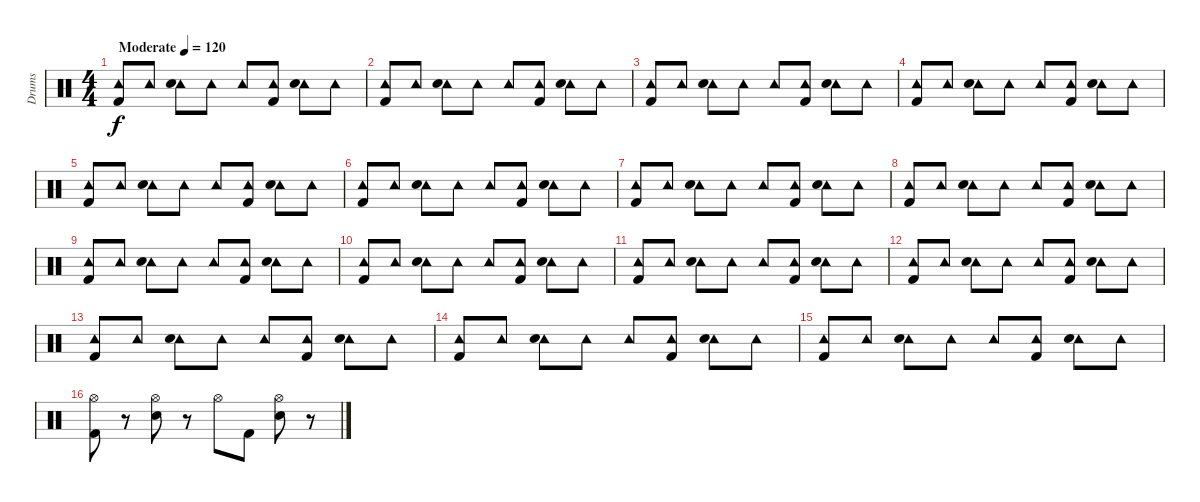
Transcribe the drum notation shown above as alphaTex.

\track ("Drums" "Drums") {instrument percussion}
\staff {score}
\articulation defaults
\ts (4 4)
\tempo (120 "Moderate")
\clef neutral
\ks c
("Tambourine (hit)" "Kick (hit) 2").8{dy f} "Tambourine (hit)".8 ("Tambourine (hit)" "Hand Clap (hit)").8 "Tambourine (hit)".8 "Tambourine (hit)".8 ("Tambourine (hit)" "Kick (hit) 2").8 ("Tambourine (hit)" "Hand Clap (hit)").8 "Tambourine (hit)".8 |
("Tambourine (hit)" "Kick (hit) 2").8 "Tambourine (hit)".8 ("Tambourine (hit)" "Hand Clap (hit)").8 "Tambourine (hit)".8 "Tambourine (hit)".8 ("Tambourine (hit)" "Kick (hit) 2").8 ("Tambourine (hit)" "Hand Clap (hit)").8 "Tambourine (hit)".8 |
("Tambourine (hit)" "Kick (hit) 2").8 "Tambourine (hit)".8 ("Tambourine (hit)" "Hand Clap (hit)").8 "Tambourine (hit)".8 "Tambourine (hit)".8 ("Tambourine (hit)" "Kick (hit) 2").8 ("Tambourine (hit)" "Hand Clap (hit)").8 "Tambourine (hit)".8 |
("Tambourine (hit)" "Kick (hit) 2").8 "Tambourine (hit)".8 ("Tambourine (hit)" "Hand Clap (hit)").8 "Tambourine (hit)".8 "Tambourine (hit)".8 ("Tambourine (hit)" "Kick (hit) 2").8 ("Tambourine (hit)" "Hand Clap (hit)").8 "Tambourine (hit)".8 |
("Tambourine (hit)" "Kick (hit) 2").8 "Tambourine (hit)".8 ("Tambourine (hit)" "Hand Clap (hit)").8 "Tambourine (hit)".8 "Tambourine (hit)".8 ("Tambourine (hit)" "Kick (hit) 2").8 ("Tambourine (hit)" "Hand Clap (hit)").8 "Tambourine (hit)".8 |
("Tambourine (hit)" "Kick (hit) 2").8 "Tambourine (hit)".8 ("Tambourine (hit)" "Hand Clap (hit)").8 "Tambourine (hit)".8 "Tambourine (hit)".8 ("Tambourine (hit)" "Kick (hit) 2").8 ("Tambourine (hit)" "Hand Clap (hit)").8 "Tambourine (hit)".8 |
("Tambourine (hit)" "Kick (hit) 2").8 "Tambourine (hit)".8 ("Tambourine (hit)" "Hand Clap (hit)").8 "Tambourine (hit)".8 "Tambourine (hit)".8 ("Tambourine (hit)" "Kick (hit) 2").8 ("Tambourine (hit)" "Hand Clap (hit)").8 "Tambourine (hit)".8 |
("Tambourine (hit)" "Kick (hit) 2").8 "Tambourine (hit)".8 ("Tambourine (hit)" "Hand Clap (hit)").8 "Tambourine (hit)".8 "Tambourine (hit)".8 ("Tambourine (hit)" "Kick (hit) 2").8 ("Tambourine (hit)" "Hand Clap (hit)").8 "Tambourine (hit)".8 |
("Tambourine (hit)" "Kick (hit) 2").8 "Tambourine (hit)".8 ("Tambourine (hit)" "Hand Clap (hit)").8 "Tambourine (hit)".8 "Tambourine (hit)".8 ("Tambourine (hit)" "Kick (hit) 2").8 ("Tambourine (hit)" "Hand Clap (hit)").8 "Tambourine (hit)".8 |
("Tambourine (hit)" "Kick (hit) 2").8 "Tambourine (hit)".8 ("Tambourine (hit)" "Hand Clap (hit)").8 "Tambourine (hit)".8 "Tambourine (hit)".8 ("Tambourine (hit)" "Kick (hit) 2").8 ("Tambourine (hit)" "Hand Clap (hit)").8 "Tambourine (hit)".8 |
("Tambourine (hit)" "Kick (hit) 2").8 "Tambourine (hit)".8 ("Tambourine (hit)" "Hand Clap (hit)").8 "Tambourine (hit)".8 "Tambourine (hit)".8 ("Tambourine (hit)" "Kick (hit) 2").8 ("Tambourine (hit)" "Hand Clap (hit)").8 "Tambourine (hit)".8 |
("Tambourine (hit)" "Kick (hit) 2").8 "Tambourine (hit)".8 ("Tambourine (hit)" "Hand Clap (hit)").8 "Tambourine (hit)".8 "Tambourine (hit)".8 ("Tambourine (hit)" "Kick (hit) 2").8 ("Tambourine (hit)" "Hand Clap (hit)").8 "Tambourine (hit)".8 |
("Tambourine (hit)" "Kick (hit) 2").8 "Tambourine (hit)".8 ("Tambourine (hit)" "Hand Clap (hit)").8 "Tambourine (hit)".8 "Tambourine (hit)".8 ("Tambourine (hit)" "Kick (hit) 2").8 ("Tambourine (hit)" "Hand Clap (hit)").8 "Tambourine (hit)".8 |
("Tambourine (hit)" "Kick (hit) 2").8 "Tambourine (hit)".8 ("Tambourine (hit)" "Hand Clap (hit)").8 "Tambourine (hit)".8 "Tambourine (hit)".8 ("Tambourine (hit)" "Kick (hit) 2").8 ("Tambourine (hit)" "Hand Clap (hit)").8 "Tambourine (hit)".8 |
("Tambourine (hit)" "Kick (hit) 2").8 "Tambourine (hit)".8 ("Tambourine (hit)" "Hand Clap (hit)").8 "Tambourine (hit)".8 "Tambourine (hit)".8 ("Tambourine (hit)" "Kick (hit) 2").8 ("Tambourine (hit)" "Hand Clap (hit)").8 "Tambourine (hit)".8 |
("Hi-Hat (open)" "Kick (hit) 2").8 r.8 ("Hi-Hat (open)" "Hand Clap (hit)").8 r.8 "Hi-Hat (open)".8 "Kick (hit) 2".8 ("Hi-Hat (open)" "Hand Clap (hit)").8 r.8
